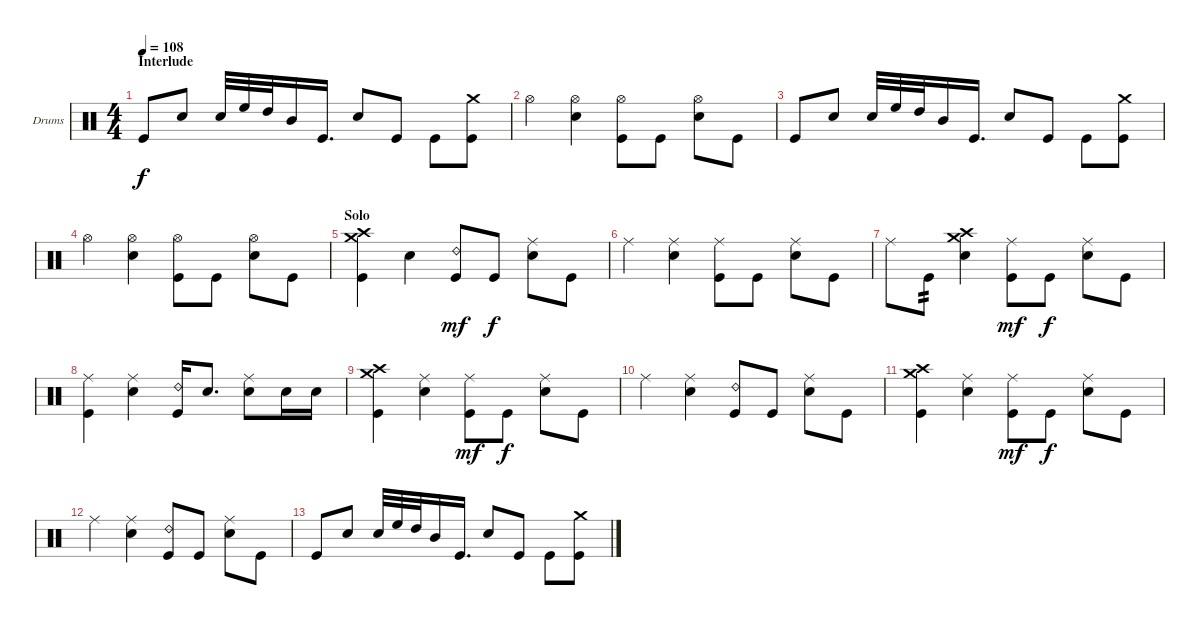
\defaultSystemsLayout 4
\bracketExtendMode groupsimilarinstruments
\firstSystemTrackNameOrientation horizontal
\otherSystemsTrackNameOrientation horizontal
\track ("Drums" "Drums") {instrument percussion}
\staff {score}
\articulation defaults
\ts (4 4)
\section ("" "Interlude")
\tempo 108
\clef neutral
\ks c "Kick (hit)".8{dy f} "Snare (hit) 2".8 "Snare (hit) 2".32 "High Floor Tom (hit)".32 "High Tom (hit)".32 "Mid Tom (hit)".16 "Kick (hit)".16{d} "Snare (hit) 2".8 "Kick (hit)".8 "Kick (hit)".8
("Kick (hit)" "Crash medium (hit)").8 |
"Hi-Hat (open)".4 ("Snare (hit) 2" "Hi-Hat (open)").4 ("Kick (hit)" "Hi-Hat (open)").8 "Kick (hit)".8 ("Snare (hit) 2" "Hi-Hat (open)").8 "Kick (hit)".8 |
"Kick (hit)".8 "Snare (hit) 2".8 "Snare (hit) 2".32 "High Floor Tom (hit)".32 "High Tom (hit)".32 "Mid Tom (hit)".16 "Kick (hit)".16{d} "Snare (hit) 2".8 "Kick (hit)".8 "Kick (hit)".8 ("Kick (hit)" "Crash medium (hit)").8 |
"Hi-Hat (open)".4 ("Snare (hit) 2" "Hi-Hat (open)").4 ("Kick (hit)" "Hi-Hat (open)").8 "Kick (hit)".8 ("Snare (hit) 2" "Hi-Hat (open)").8 "Kick (hit)".8 |
\section ("" "Solo")
("Kick (hit)" "Crash high (hit)" "Crash medium (hit)").4 "Snare (hit) 2".4 ("Kick (hit)" "Ride (bell) 2").8{dy mf} "Kick (hit)".8{dy f} ("Snare (hit) 2" "Ride (middle)").8 "Kick (hit)".8 |
"Ride (middle)".4 ("Snare (hit) 2" "Ride (middle)").4 ("Kick (hit)" "Ride (middle)").8 "Kick (hit)".8 ("Snare (hit) 2" "Ride (middle)").8 "Kick (hit)".8 |
"Ride (middle)".8 "Kick (hit)".8{tp 2} ("Snare (hit) 2" "Crash medium (hit)" "Crash high (hit)").4 ("Kick (hit)" "Ride (middle)").8{dy mf} "Kick (hit)".8{dy f} ("Snare (hit) 2" "Ride (middle)").8 "Kick (hit)".8 |
("Kick (hit)" "Ride (middle)").4 ("Snare (hit) 2" "Ride (middle)").4 ("Kick (hit)" "Ride (bell) 2").16 "Snare (hit) 2".8{d} ("Snare (hit) 2" "Ride (middle)").8 "Snare (hit) 2".16 "Snare (hit) 2".16 |
("Kick (hit)" "Crash high (hit)" "Crash medium (hit)").4 ("Snare (hit) 2" "Ride (middle)").4 ("Kick (hit)" "Ride (middle)").8{dy mf} "Kick (hit)".8{dy f} ("Snare (hit) 2" "Ride (middle)").8 "Kick (hit)".8 |
"Ride (middle)".4 ("Snare (hit) 2" "Ride (middle)").4 ("Kick (hit)" "Ride (bell) 2").8 "Kick (hit)".8 ("Snare (hit) 2" "Ride (middle)").8 "Kick (hit)".8 |
("Kick (hit)" "Crash high (hit)" "Crash medium (hit)").4 ("Snare (hit) 2" "Ride (middle)").4 ("Kick (hit)" "Ride (middle)").8{dy mf} "Kick (hit)".8{dy f} ("Snare (hit) 2" "Ride (middle)").8 "Kick (hit)".8 |
"Ride (middle)".4 ("Snare (hit) 2" "Ride (middle)").4 ("Kick (hit)" "Ride (bell) 2").8 "Kick (hit)".8 ("Snare (hit) 2" "Ride (middle)").8 "Kick (hit)".8 |
"Kick (hit)".8 "Snare (hit) 2".8 "Snare (hit) 2".32 "High Floor Tom (hit)".32 "High Tom (hit)".32 "Mid Tom (hit)".16 "Kick (hit)".16{d} "Snare (hit) 2".8 "Kick (hit)".8 "Kick (hit)".8 ("Kick (hit)" "Crash medium (hit)").8
